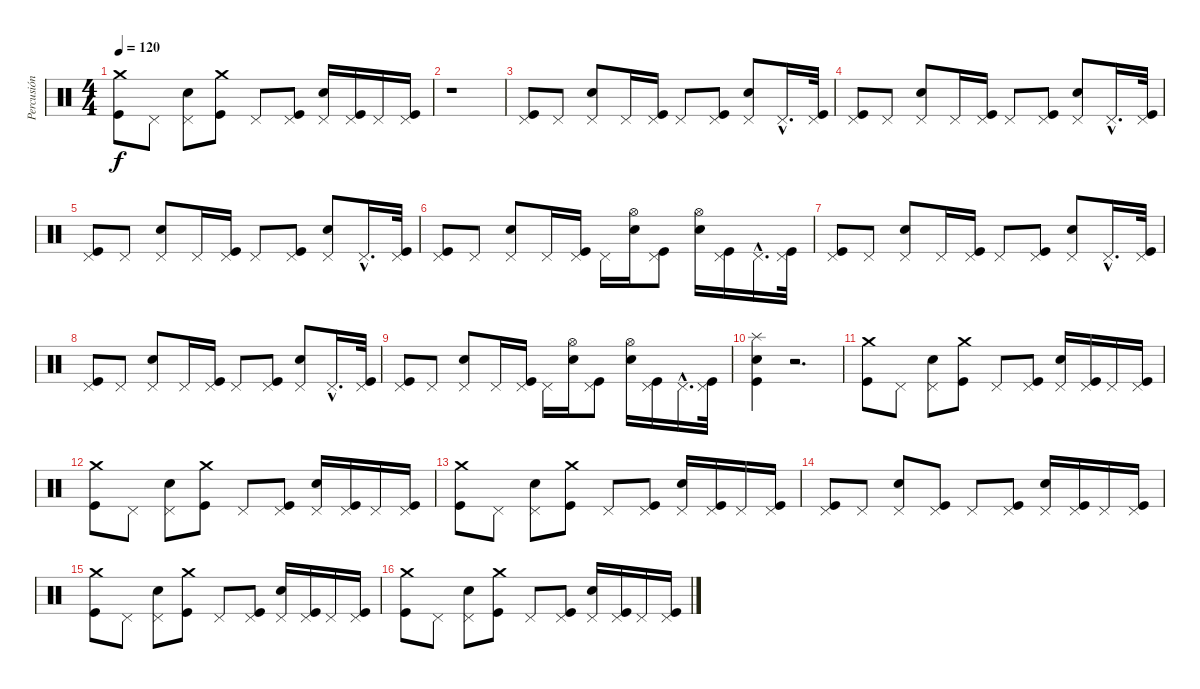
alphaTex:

\track ("Percusión" "Percusión") {instrument percussion}
\staff {score}
\articulation defaults
\ts (4 4)
\tempo 120
\clef neutral
\ks c
("Crash medium (hit)" "Kick (hit)").8{dy f} "Pedal Hi-Hat (hit)".8 ("Pedal Hi-Hat (hit)" "Electric Snare (hit)").8 ("Crash medium (hit)" "Kick (hit)").8 "Pedal Hi-Hat (hit)".8 ("Pedal Hi-Hat (hit)" "Kick (hit)").8 ("Pedal Hi-Hat (hit)" "Electric Snare (hit)").16 ("Pedal Hi-Hat (hit)" "Kick (hit)").16 "Pedal Hi-Hat (hit)".16 ("Pedal Hi-Hat (hit)" "Kick (hit)").16 |
r.1 |
("Pedal Hi-Hat (hit)" "Kick (hit)").8 "Pedal Hi-Hat (hit)".8 ("Pedal Hi-Hat (hit)" "Electric Snare (hit)").8 "Pedal Hi-Hat (hit)".16 ("Pedal Hi-Hat (hit)" "Kick (hit)").16 "Pedal Hi-Hat (hit)".8 ("Pedal Hi-Hat (hit)" "Kick (hit)").8 ("Pedal Hi-Hat (hit)" "Electric Snare (hit)").8 "Pedal Hi-Hat (hit)"{hac}.16{d} ("Pedal Hi-Hat (hit)" "Kick (hit)").32 |
("Pedal Hi-Hat (hit)" "Kick (hit)").8 "Pedal Hi-Hat (hit)".8 ("Pedal Hi-Hat (hit)" "Electric Snare (hit)").8 "Pedal Hi-Hat (hit)".16 ("Pedal Hi-Hat (hit)" "Kick (hit)").16 "Pedal Hi-Hat (hit)".8 ("Pedal Hi-Hat (hit)" "Kick (hit)").8 ("Pedal Hi-Hat (hit)" "Electric Snare (hit)").8 "Pedal Hi-Hat (hit)"{hac}.16{d} ("Pedal Hi-Hat (hit)" "Kick (hit)").32 |
("Pedal Hi-Hat (hit)" "Kick (hit)").8 "Pedal Hi-Hat (hit)".8 ("Pedal Hi-Hat (hit)" "Electric Snare (hit)").8 "Pedal Hi-Hat (hit)".16 ("Pedal Hi-Hat (hit)" "Kick (hit)").16 "Pedal Hi-Hat (hit)".8 ("Pedal Hi-Hat (hit)" "Kick (hit)").8 ("Pedal Hi-Hat (hit)" "Electric Snare (hit)").8 "Pedal Hi-Hat (hit)"{hac}.16{d} ("Pedal Hi-Hat (hit)" "Kick (hit)").32 |
("Pedal Hi-Hat (hit)" "Kick (hit)").8 "Pedal Hi-Hat (hit)".8 ("Pedal Hi-Hat (hit)" "Electric Snare (hit)").8 "Pedal Hi-Hat (hit)".16 ("Pedal Hi-Hat (hit)" "Kick (hit)").16 "Pedal Hi-Hat (hit)".16 ("Hi-Hat (open)" "Electric Snare (hit)").16 ("Pedal Hi-Hat (hit)" "Kick (hit)").8 ("Hi-Hat (open)" "Electric Snare (hit)").16 ("Pedal Hi-Hat (hit)" "Kick (hit)").16 "Pedal Hi-Hat (hit)"{hac}.16{d} ("Pedal Hi-Hat (hit)" "Kick (hit)").32 |
("Pedal Hi-Hat (hit)" "Kick (hit)").8 "Pedal Hi-Hat (hit)".8 ("Pedal Hi-Hat (hit)" "Electric Snare (hit)").8 "Pedal Hi-Hat (hit)".16 ("Pedal Hi-Hat (hit)" "Kick (hit)").16 "Pedal Hi-Hat (hit)".8 ("Pedal Hi-Hat (hit)" "Kick (hit)").8 ("Pedal Hi-Hat (hit)" "Electric Snare (hit)").8 "Pedal Hi-Hat (hit)"{hac}.16{d} ("Pedal Hi-Hat (hit)" "Kick (hit)").32 |
("Pedal Hi-Hat (hit)" "Kick (hit)").8 "Pedal Hi-Hat (hit)".8 ("Pedal Hi-Hat (hit)" "Electric Snare (hit)").8 "Pedal Hi-Hat (hit)".16 ("Pedal Hi-Hat (hit)" "Kick (hit)").16 "Pedal Hi-Hat (hit)".8 ("Pedal Hi-Hat (hit)" "Kick (hit)").8 ("Pedal Hi-Hat (hit)" "Electric Snare (hit)").8 "Pedal Hi-Hat (hit)"{hac}.16{d} ("Pedal Hi-Hat (hit)" "Kick (hit)").32 |
("Pedal Hi-Hat (hit)" "Kick (hit)").8 "Pedal Hi-Hat (hit)".8 ("Pedal Hi-Hat (hit)" "Electric Snare (hit)").8 "Pedal Hi-Hat (hit)".16 ("Pedal Hi-Hat (hit)" "Kick (hit)").16 "Pedal Hi-Hat (hit)".16 ("Hi-Hat (open)" "Electric Snare (hit)").16 ("Pedal Hi-Hat (hit)" "Kick (hit)").8 ("Hi-Hat (open)" "Electric Snare (hit)").16 ("Pedal Hi-Hat (hit)" "Kick (hit)").16 "Pedal Hi-Hat (hit)"{hac}.16{d} ("Pedal Hi-Hat (hit)" "Kick (hit)").32 |
("Splash (hit)" "Electric Snare (hit)" "Kick (hit)").4 r.2{d} |
("Crash medium (hit)" "Kick (hit)").8 "Pedal Hi-Hat (hit)".8 ("Pedal Hi-Hat (hit)" "Electric Snare (hit)").8 ("Crash medium (hit)" "Kick (hit)").8 "Pedal Hi-Hat (hit)".8 ("Pedal Hi-Hat (hit)" "Kick (hit)").8 ("Pedal Hi-Hat (hit)" "Electric Snare (hit)").16 ("Pedal Hi-Hat (hit)" "Kick (hit)").16 "Pedal Hi-Hat (hit)".16 ("Pedal Hi-Hat (hit)" "Kick (hit)").16 |
("Crash medium (hit)" "Kick (hit)").8 "Pedal Hi-Hat (hit)".8 ("Pedal Hi-Hat (hit)" "Electric Snare (hit)").8 ("Crash medium (hit)" "Kick (hit)").8 "Pedal Hi-Hat (hit)".8 ("Pedal Hi-Hat (hit)" "Kick (hit)").8 ("Pedal Hi-Hat (hit)" "Electric Snare (hit)").16 ("Pedal Hi-Hat (hit)" "Kick (hit)").16 "Pedal Hi-Hat (hit)".16 ("Pedal Hi-Hat (hit)" "Kick (hit)").16 |
("Crash medium (hit)" "Kick (hit)").8 "Pedal Hi-Hat (hit)".8 ("Pedal Hi-Hat (hit)" "Electric Snare (hit)").8 ("Crash medium (hit)" "Kick (hit)").8 "Pedal Hi-Hat (hit)".8 ("Pedal Hi-Hat (hit)" "Kick (hit)").8 ("Pedal Hi-Hat (hit)" "Electric Snare (hit)").16 ("Pedal Hi-Hat (hit)" "Kick (hit)").16 "Pedal Hi-Hat (hit)".16 ("Pedal Hi-Hat (hit)" "Kick (hit)").16 |
("Pedal Hi-Hat (hit)" "Kick (hit)").8 "Pedal Hi-Hat (hit)".8 ("Pedal Hi-Hat (hit)" "Electric Snare (hit)").8 ("Pedal Hi-Hat (hit)" "Kick (hit)").8 "Pedal Hi-Hat (hit)".8 ("Pedal Hi-Hat (hit)" "Kick (hit)").8 ("Pedal Hi-Hat (hit)" "Electric Snare (hit)").16 ("Pedal Hi-Hat (hit)" "Kick (hit)").16 "Pedal Hi-Hat (hit)".16 ("Pedal Hi-Hat (hit)" "Kick (hit)").16 |
("Crash medium (hit)" "Kick (hit)").8 "Pedal Hi-Hat (hit)".8 ("Pedal Hi-Hat (hit)" "Electric Snare (hit)").8 ("Crash medium (hit)" "Kick (hit)").8 "Pedal Hi-Hat (hit)".8 ("Pedal Hi-Hat (hit)" "Kick (hit)").8 ("Pedal Hi-Hat (hit)" "Electric Snare (hit)").16 ("Pedal Hi-Hat (hit)" "Kick (hit)").16 "Pedal Hi-Hat (hit)".16 ("Pedal Hi-Hat (hit)" "Kick (hit)").16 |
("Crash medium (hit)" "Kick (hit)").8 "Pedal Hi-Hat (hit)".8 ("Pedal Hi-Hat (hit)" "Electric Snare (hit)").8 ("Crash medium (hit)" "Kick (hit)").8 "Pedal Hi-Hat (hit)".8 ("Pedal Hi-Hat (hit)" "Kick (hit)").8 ("Pedal Hi-Hat (hit)" "Electric Snare (hit)").16 ("Pedal Hi-Hat (hit)" "Kick (hit)").16 "Pedal Hi-Hat (hit)".16 ("Pedal Hi-Hat (hit)" "Kick (hit)").16
